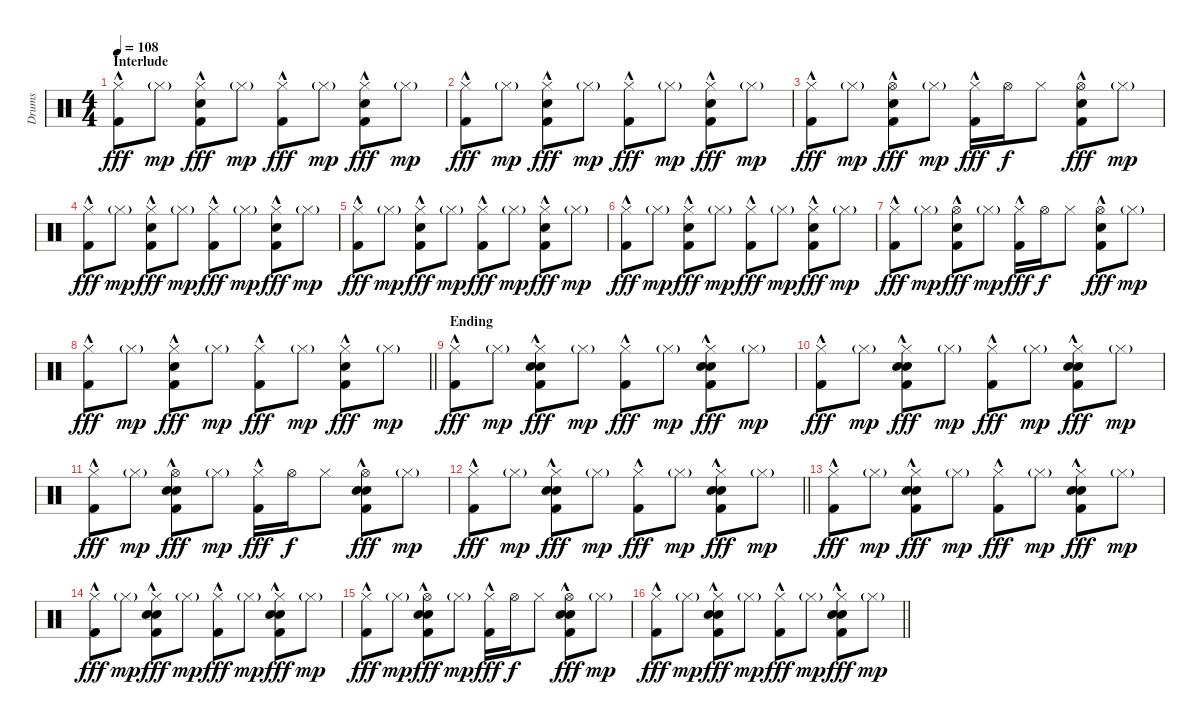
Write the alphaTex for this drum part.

\track ("Drums" "Drums") {instrument percussion}
\staff {score}
\articulation defaults
\ts (4 4)
\section ("" "Interlude")
\tempo 108
\clef neutral
\ks c
("Hi-Hat (closed)" "Kick (hit) 2"{hac}).8{dy fff} "Hi-Hat (closed)"{g}.8{dy mp} ("Hi-Hat (closed)" "Snare (hit) 2" "Kick (hit) 2"{hac}).8{dy fff} "Hi-Hat (closed)"{g}.8{dy mp} ("Hi-Hat (closed)" "Kick (hit) 2"{hac}).8{dy fff} "Hi-Hat (closed)"{g}.8{dy mp} ("Hi-Hat (closed)" "Snare (hit) 2" "Kick (hit) 2"{hac}).8{dy fff} "Hi-Hat (closed)"{g}.8{dy mp} |
("Hi-Hat (closed)" "Kick (hit) 2"{hac}).8{dy fff} "Hi-Hat (closed)"{g}.8{dy mp} ("Hi-Hat (closed)" "Snare (hit) 2" "Kick (hit) 2"{hac}).8{dy fff} "Hi-Hat (closed)"{g}.8{dy mp} ("Hi-Hat (closed)" "Kick (hit) 2"{hac}).8{dy fff} "Hi-Hat (closed)"{g}.8{dy mp} ("Hi-Hat (closed)" "Snare (hit) 2" "Kick (hit) 2"{hac}).8{dy fff} "Hi-Hat (closed)"{g}.8{dy mp} |
("Hi-Hat (closed)" "Kick (hit) 2"{hac}).8{dy fff} "Hi-Hat (closed)"{g}.8{dy mp} ("Hi-Hat (open)" "Snare (hit) 2" "Kick (hit) 2"{hac}).8{dy fff} "Hi-Hat (closed)"{g}.8{dy mp} ("Hi-Hat (closed)" "Kick (hit) 2"{hac}).16{dy fff} "Hi-Hat (open)".16{dy f} "Hi-Hat (closed)".8 ("Hi-Hat (open)" "Snare (hit) 2" "Kick (hit) 2"{hac}).8{dy fff} "Hi-Hat (closed)"{g}.8{dy mp} |
("Hi-Hat (closed)" "Kick (hit) 2"{hac}).8{dy fff} "Hi-Hat (closed)"{g}.8{dy mp} ("Hi-Hat (closed)" "Snare (hit) 2" "Kick (hit) 2"{hac}).8{dy fff} "Hi-Hat (closed)"{g}.8{dy mp} ("Hi-Hat (closed)" "Kick (hit) 2"{hac}).8{dy fff} "Hi-Hat (closed)"{g}.8{dy mp} ("Hi-Hat (closed)" "Snare (hit) 2" "Kick (hit) 2"{hac}).8{dy fff} "Hi-Hat (closed)"{g}.8{dy mp} |
("Hi-Hat (closed)" "Kick (hit) 2"{hac}).8{dy fff} "Hi-Hat (closed)"{g}.8{dy mp} ("Hi-Hat (closed)" "Snare (hit) 2" "Kick (hit) 2"{hac}).8{dy fff} "Hi-Hat (closed)"{g}.8{dy mp} ("Hi-Hat (closed)" "Kick (hit) 2"{hac}).8{dy fff} "Hi-Hat (closed)"{g}.8{dy mp} ("Hi-Hat (closed)" "Snare (hit) 2" "Kick (hit) 2"{hac}).8{dy fff} "Hi-Hat (closed)"{g}.8{dy mp} |
("Hi-Hat (closed)" "Kick (hit) 2"{hac}).8{dy fff} "Hi-Hat (closed)"{g}.8{dy mp} ("Hi-Hat (closed)" "Snare (hit) 2" "Kick (hit) 2"{hac}).8{dy fff} "Hi-Hat (closed)"{g}.8{dy mp} ("Hi-Hat (closed)" "Kick (hit) 2"{hac}).8{dy fff} "Hi-Hat (closed)"{g}.8{dy mp} ("Hi-Hat (closed)" "Snare (hit) 2" "Kick (hit) 2"{hac}).8{dy fff} "Hi-Hat (closed)"{g}.8{dy mp} |
("Hi-Hat (closed)" "Kick (hit) 2"{hac}).8{dy fff} "Hi-Hat (closed)"{g}.8{dy mp} ("Hi-Hat (open)" "Snare (hit) 2" "Kick (hit) 2"{hac}).8{dy fff} "Hi-Hat (closed)"{g}.8{dy mp} ("Hi-Hat (closed)" "Kick (hit) 2"{hac}).16{dy fff} "Hi-Hat (open)".16{dy f} "Hi-Hat (closed)".8 ("Hi-Hat (open)" "Snare (hit) 2" "Kick (hit) 2"{hac}).8{dy fff} "Hi-Hat (closed)"{g}.8{dy mp} |
\barLineRight lightlight
("Hi-Hat (closed)" "Kick (hit) 2"{hac}).8{dy fff} "Hi-Hat (closed)"{g}.8{dy mp} ("Hi-Hat (closed)" "Snare (hit) 2" "Kick (hit) 2"{hac}).8{dy fff} "Hi-Hat (closed)"{g}.8{dy mp} ("Hi-Hat (closed)" "Kick (hit) 2"{hac}).8{dy fff} "Hi-Hat (closed)"{g}.8{dy mp} ("Hi-Hat (closed)" "Snare (hit) 2" "Kick (hit) 2"{hac}).8{dy fff} "Hi-Hat (closed)"{g}.8{dy mp} |
\section ("" "Ending")
("Hi-Hat (closed)" "Kick (hit) 2"{hac}).8{dy fff volume 16} "Hi-Hat (closed)"{g}.8{dy mp} ("Hi-Hat (closed)" "Snare (hit) 2" "Snare (hit) 2" "Kick (hit) 2"{hac}).8{dy fff} "Hi-Hat (closed)"{g}.8{dy mp} ("Hi-Hat (closed)" "Kick (hit) 2"{hac}).8{dy fff} "Hi-Hat (closed)"{g}.8{dy mp} ("Hi-Hat (closed)" "Snare (hit) 2" "Snare (hit) 2" "Kick (hit) 2"{hac}).8{dy fff} "Hi-Hat (closed)"{g}.8{dy mp} |
("Hi-Hat (closed)" "Kick (hit) 2"{hac}).8{dy fff} "Hi-Hat (closed)"{g}.8{dy mp} ("Hi-Hat (closed)" "Snare (hit) 2" "Snare (hit) 2" "Kick (hit) 2"{hac}).8{dy fff} "Hi-Hat (closed)"{g}.8{dy mp} ("Hi-Hat (closed)" "Kick (hit) 2"{hac}).8{dy fff} "Hi-Hat (closed)"{g}.8{dy mp} ("Hi-Hat (closed)" "Snare (hit) 2" "Snare (hit) 2" "Kick (hit) 2"{hac}).8{dy fff} "Hi-Hat (closed)"{g}.8{dy mp} |
("Hi-Hat (closed)" "Kick (hit) 2"{hac}).8{dy fff} "Hi-Hat (closed)"{g}.8{dy mp} ("Hi-Hat (open)" "Snare (hit) 2" "Snare (hit) 2" "Kick (hit) 2"{hac}).8{dy fff} "Hi-Hat (closed)"{g}.8{dy mp} ("Hi-Hat (closed)" "Kick (hit) 2"{hac}).16{dy fff} "Hi-Hat (open)".16{dy f} "Hi-Hat (closed)".8 ("Hi-Hat (open)" "Snare (hit) 2" "Snare (hit) 2" "Kick (hit) 2"{hac}).8{dy fff} "Hi-Hat (closed)"{g}.8{dy mp} |
\barLineRight lightlight
("Hi-Hat (closed)" "Kick (hit) 2"{hac}).8{dy fff} "Hi-Hat (closed)"{g}.8{dy mp} ("Hi-Hat (closed)" "Snare (hit) 2" "Snare (hit) 2" "Kick (hit) 2"{hac}).8{dy fff} "Hi-Hat (closed)"{g}.8{dy mp} ("Hi-Hat (closed)" "Kick (hit) 2"{hac}).8{dy fff} "Hi-Hat (closed)"{g}.8{dy mp} ("Hi-Hat (closed)" "Snare (hit) 2" "Snare (hit) 2" "Kick (hit) 2"{hac}).8{dy fff} "Hi-Hat (closed)"{g}.8{dy mp} |
("Hi-Hat (closed)" "Kick (hit) 2"{hac}).8{dy fff} "Hi-Hat (closed)"{g}.8{dy mp} ("Hi-Hat (closed)" "Snare (hit) 2" "Snare (hit) 2" "Kick (hit) 2"{hac}).8{dy fff} "Hi-Hat (closed)"{g}.8{dy mp} ("Hi-Hat (closed)" "Kick (hit) 2"{hac}).8{dy fff} "Hi-Hat (closed)"{g}.8{dy mp} ("Hi-Hat (closed)" "Snare (hit) 2" "Snare (hit) 2" "Kick (hit) 2"{hac}).8{dy fff} "Hi-Hat (closed)"{g}.8{dy mp} |
("Hi-Hat (closed)" "Kick (hit) 2"{hac}).8{dy fff} "Hi-Hat (closed)"{g}.8{dy mp} ("Hi-Hat (closed)" "Snare (hit) 2" "Snare (hit) 2" "Kick (hit) 2"{hac}).8{dy fff} "Hi-Hat (closed)"{g}.8{dy mp} ("Hi-Hat (closed)" "Kick (hit) 2"{hac}).8{dy fff} "Hi-Hat (closed)"{g}.8{dy mp} ("Hi-Hat (closed)" "Snare (hit) 2" "Snare (hit) 2" "Kick (hit) 2"{hac}).8{dy fff} "Hi-Hat (closed)"{g}.8{dy mp} |
("Hi-Hat (closed)" "Kick (hit) 2"{hac}).8{dy fff} "Hi-Hat (closed)"{g}.8{dy mp} ("Hi-Hat (open)" "Snare (hit) 2" "Snare (hit) 2" "Kick (hit) 2"{hac}).8{dy fff} "Hi-Hat (closed)"{g}.8{dy mp} ("Hi-Hat (closed)" "Kick (hit) 2"{hac}).16{dy fff} "Hi-Hat (open)".16{dy f} "Hi-Hat (closed)".8 ("Hi-Hat (open)" "Snare (hit) 2" "Snare (hit) 2" "Kick (hit) 2"{hac}).8{dy fff} "Hi-Hat (closed)"{g}.8{dy mp} |
\barLineRight lightlight
("Hi-Hat (closed)" "Kick (hit) 2"{hac}).8{dy fff} "Hi-Hat (closed)"{g}.8{dy mp} ("Hi-Hat (closed)" "Snare (hit) 2" "Snare (hit) 2" "Kick (hit) 2"{hac}).8{dy fff} "Hi-Hat (closed)"{g}.8{dy mp} ("Hi-Hat (closed)" "Kick (hit) 2"{hac}).8{dy fff} "Hi-Hat (closed)"{g}.8{dy mp} ("Hi-Hat (closed)" "Snare (hit) 2" "Snare (hit) 2" "Kick (hit) 2"{hac}).8{dy fff} "Hi-Hat (closed)"{g}.8{dy mp}
